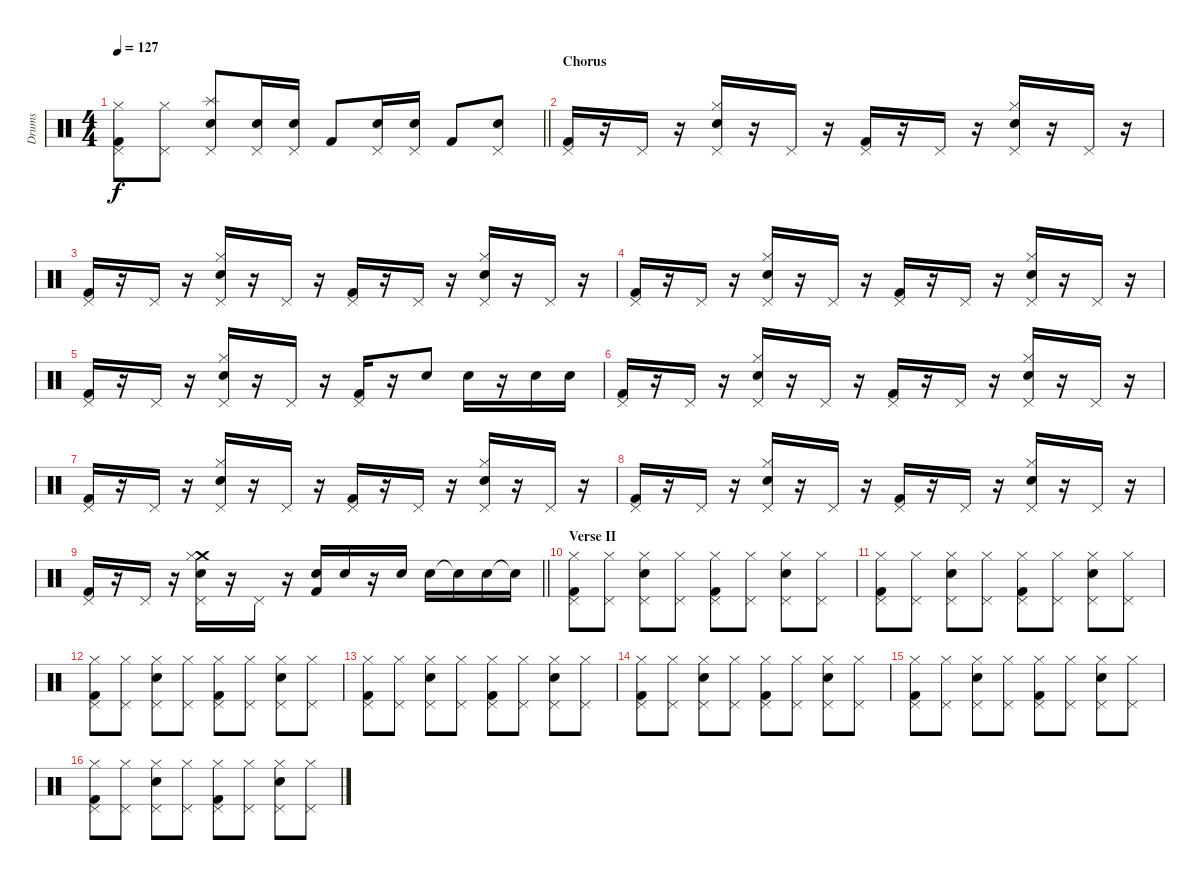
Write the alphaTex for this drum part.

\track ("Drums" "Drums") {instrument percussion}
\staff {score}
\articulation defaults
\ts (4 4)
\tempo 127
\clef neutral
\barLineRight lightlight
\ks c
("Pedal Hi-Hat (hit)" "Hi-Hat (closed)" "Kick (hit) 2").8{dy f} ("Pedal Hi-Hat (hit)" "Hi-Hat (closed)").8 ("Pedal Hi-Hat (hit)" "Splash (hit)" "Electric Snare (hit)").8 ("Pedal Hi-Hat (hit)" "Electric Snare (hit)").16 ("Pedal Hi-Hat (hit)" "Electric Snare (hit)").16 "Kick (hit) 2".8 ("Pedal Hi-Hat (hit)" "Electric Snare (hit)").16 ("Pedal Hi-Hat (hit)" "Electric Snare (hit)").16 "Kick (hit) 2".8 ("Pedal Hi-Hat (hit)" "Electric Snare (hit)").8 |
\section ("" "Chorus")
("Pedal Hi-Hat (hit)" "Kick (hit) 2").16 r.16 "Pedal Hi-Hat (hit)".16 r.16 ("Hi-Hat (closed)" "Pedal Hi-Hat (hit)" "Electric Snare (hit)").16 r.16 "Pedal Hi-Hat (hit)".16 r.16 ("Pedal Hi-Hat (hit)" "Kick (hit) 2").16 r.16 "Pedal Hi-Hat (hit)".16 r.16 ("Hi-Hat (closed)" "Pedal Hi-Hat (hit)" "Electric Snare (hit)").16 r.16 "Pedal Hi-Hat (hit)".16 r.16 |
("Pedal Hi-Hat (hit)" "Kick (hit) 2").16 r.16 "Pedal Hi-Hat (hit)".16 r.16 ("Hi-Hat (closed)" "Pedal Hi-Hat (hit)" "Electric Snare (hit)").16 r.16 "Pedal Hi-Hat (hit)".16 r.16 ("Pedal Hi-Hat (hit)" "Kick (hit) 2").16 r.16 "Pedal Hi-Hat (hit)".16 r.16 ("Hi-Hat (closed)" "Pedal Hi-Hat (hit)" "Electric Snare (hit)").16 r.16 "Pedal Hi-Hat (hit)".16 r.16 |
("Pedal Hi-Hat (hit)" "Kick (hit) 2").16 r.16 "Pedal Hi-Hat (hit)".16 r.16 ("Hi-Hat (closed)" "Pedal Hi-Hat (hit)" "Electric Snare (hit)").16 r.16 "Pedal Hi-Hat (hit)".16 r.16 ("Pedal Hi-Hat (hit)" "Kick (hit) 2").16 r.16 "Pedal Hi-Hat (hit)".16 r.16 ("Hi-Hat (closed)" "Pedal Hi-Hat (hit)" "Electric Snare (hit)").16 r.16 "Pedal Hi-Hat (hit)".16 r.16 |
("Pedal Hi-Hat (hit)" "Kick (hit) 2").16 r.16 "Pedal Hi-Hat (hit)".16 r.16 ("Hi-Hat (closed)" "Pedal Hi-Hat (hit)" "Electric Snare (hit)").16 r.16 "Pedal Hi-Hat (hit)".16 r.16 ("Pedal Hi-Hat (hit)" "Kick (hit) 2").16 r.16 "Electric Snare (hit)".8 "Electric Snare (hit)".16 r.16 "Electric Snare (hit)".16 "Electric Snare (hit)".16 |
("Pedal Hi-Hat (hit)" "Kick (hit) 2").16 r.16 "Pedal Hi-Hat (hit)".16 r.16 ("Hi-Hat (closed)" "Pedal Hi-Hat (hit)" "Electric Snare (hit)").16 r.16 "Pedal Hi-Hat (hit)".16 r.16 ("Pedal Hi-Hat (hit)" "Kick (hit) 2").16 r.16 "Pedal Hi-Hat (hit)".16 r.16 ("Hi-Hat (closed)" "Pedal Hi-Hat (hit)" "Electric Snare (hit)").16 r.16 "Pedal Hi-Hat (hit)".16 r.16 |
("Pedal Hi-Hat (hit)" "Kick (hit) 2").16 r.16 "Pedal Hi-Hat (hit)".16 r.16 ("Hi-Hat (closed)" "Pedal Hi-Hat (hit)" "Electric Snare (hit)").16 r.16 "Pedal Hi-Hat (hit)".16 r.16 ("Pedal Hi-Hat (hit)" "Kick (hit) 2").16 r.16 "Pedal Hi-Hat (hit)".16 r.16 ("Hi-Hat (closed)" "Pedal Hi-Hat (hit)" "Electric Snare (hit)").16 r.16 "Pedal Hi-Hat (hit)".16 r.16 |
("Pedal Hi-Hat (hit)" "Kick (hit) 2").16 r.16 "Pedal Hi-Hat (hit)".16 r.16 ("Hi-Hat (closed)" "Pedal Hi-Hat (hit)" "Electric Snare (hit)").16 r.16 "Pedal Hi-Hat (hit)".16 r.16 ("Pedal Hi-Hat (hit)" "Kick (hit) 2").16 r.16 "Pedal Hi-Hat (hit)".16 r.16 ("Hi-Hat (closed)" "Pedal Hi-Hat (hit)" "Electric Snare (hit)").16 r.16 "Pedal Hi-Hat (hit)".16 r.16 |
\barLineRight lightlight
("Pedal Hi-Hat (hit)" "Kick (hit) 2").16 r.16 "Pedal Hi-Hat (hit)".16 r.16 ("Crash medium (hit)" "Hi-Hat (closed)" "Pedal Hi-Hat (hit)" "Electric Snare (hit)").16 r.16 "Pedal Hi-Hat (hit)".16 r.16 ("Electric Snare (hit)" "Kick (hit) 2").16 "Electric Snare (hit)".16 r.16 "Electric Snare (hit)".16 "Electric Snare (hit)".16 "Electric Snare (hit)"{t}.16 "Electric Snare (hit)".16 "Electric Snare (hit)"{t}.16 |
\section ("" "Verse II")
("Pedal Hi-Hat (hit)" "Hi-Hat (closed)" "Kick (hit) 2").8 ("Pedal Hi-Hat (hit)" "Hi-Hat (closed)").8 ("Pedal Hi-Hat (hit)" "Hi-Hat (closed)" "Electric Snare (hit)").8 ("Pedal Hi-Hat (hit)" "Hi-Hat (closed)").8 ("Pedal Hi-Hat (hit)" "Hi-Hat (closed)" "Kick (hit) 2").8 ("Pedal Hi-Hat (hit)" "Hi-Hat (closed)").8 ("Pedal Hi-Hat (hit)" "Hi-Hat (closed)" "Electric Snare (hit)").8 ("Pedal Hi-Hat (hit)" "Hi-Hat (closed)").8 |
("Pedal Hi-Hat (hit)" "Hi-Hat (closed)" "Kick (hit) 2").8 ("Pedal Hi-Hat (hit)" "Hi-Hat (closed)").8 ("Pedal Hi-Hat (hit)" "Hi-Hat (closed)" "Electric Snare (hit)").8 ("Pedal Hi-Hat (hit)" "Hi-Hat (closed)").8 ("Pedal Hi-Hat (hit)" "Hi-Hat (closed)" "Kick (hit) 2").8 ("Pedal Hi-Hat (hit)" "Hi-Hat (closed)").8 ("Pedal Hi-Hat (hit)" "Hi-Hat (closed)" "Electric Snare (hit)").8 ("Pedal Hi-Hat (hit)" "Hi-Hat (closed)").8 |
("Pedal Hi-Hat (hit)" "Hi-Hat (closed)" "Kick (hit) 2").8 ("Pedal Hi-Hat (hit)" "Hi-Hat (closed)").8 ("Pedal Hi-Hat (hit)" "Hi-Hat (closed)" "Electric Snare (hit)").8 ("Pedal Hi-Hat (hit)" "Hi-Hat (closed)").8 ("Pedal Hi-Hat (hit)" "Hi-Hat (closed)" "Kick (hit) 2").8 ("Pedal Hi-Hat (hit)" "Hi-Hat (closed)").8 ("Pedal Hi-Hat (hit)" "Hi-Hat (closed)" "Electric Snare (hit)").8 ("Pedal Hi-Hat (hit)" "Hi-Hat (closed)").8 |
("Pedal Hi-Hat (hit)" "Hi-Hat (closed)" "Kick (hit) 2").8 ("Pedal Hi-Hat (hit)" "Hi-Hat (closed)").8 ("Pedal Hi-Hat (hit)" "Hi-Hat (closed)" "Electric Snare (hit)").8 ("Pedal Hi-Hat (hit)" "Hi-Hat (closed)").8 ("Pedal Hi-Hat (hit)" "Hi-Hat (closed)" "Kick (hit) 2").8 ("Pedal Hi-Hat (hit)" "Hi-Hat (closed)").8 ("Pedal Hi-Hat (hit)" "Hi-Hat (closed)" "Electric Snare (hit)").8 ("Pedal Hi-Hat (hit)" "Hi-Hat (closed)").8 |
("Pedal Hi-Hat (hit)" "Hi-Hat (closed)" "Kick (hit) 2").8 ("Pedal Hi-Hat (hit)" "Hi-Hat (closed)").8 ("Pedal Hi-Hat (hit)" "Hi-Hat (closed)" "Electric Snare (hit)").8 ("Pedal Hi-Hat (hit)" "Hi-Hat (closed)").8 ("Pedal Hi-Hat (hit)" "Hi-Hat (closed)" "Kick (hit) 2").8 ("Pedal Hi-Hat (hit)" "Hi-Hat (closed)").8 ("Pedal Hi-Hat (hit)" "Hi-Hat (closed)" "Electric Snare (hit)").8 ("Pedal Hi-Hat (hit)" "Hi-Hat (closed)").8 |
("Pedal Hi-Hat (hit)" "Hi-Hat (closed)" "Kick (hit) 2").8 ("Pedal Hi-Hat (hit)" "Hi-Hat (closed)").8 ("Pedal Hi-Hat (hit)" "Hi-Hat (closed)" "Electric Snare (hit)").8 ("Pedal Hi-Hat (hit)" "Hi-Hat (closed)").8 ("Pedal Hi-Hat (hit)" "Hi-Hat (closed)" "Kick (hit) 2").8 ("Pedal Hi-Hat (hit)" "Hi-Hat (closed)").8 ("Pedal Hi-Hat (hit)" "Hi-Hat (closed)" "Electric Snare (hit)").8 ("Pedal Hi-Hat (hit)" "Hi-Hat (closed)").8 |
("Pedal Hi-Hat (hit)" "Hi-Hat (closed)" "Kick (hit) 2").8 ("Pedal Hi-Hat (hit)" "Hi-Hat (closed)").8 ("Pedal Hi-Hat (hit)" "Hi-Hat (closed)" "Electric Snare (hit)").8 ("Pedal Hi-Hat (hit)" "Hi-Hat (closed)").8 ("Pedal Hi-Hat (hit)" "Hi-Hat (closed)" "Kick (hit) 2").8 ("Pedal Hi-Hat (hit)" "Hi-Hat (closed)").8 ("Pedal Hi-Hat (hit)" "Hi-Hat (closed)" "Electric Snare (hit)").8 ("Pedal Hi-Hat (hit)" "Hi-Hat (closed)").8
